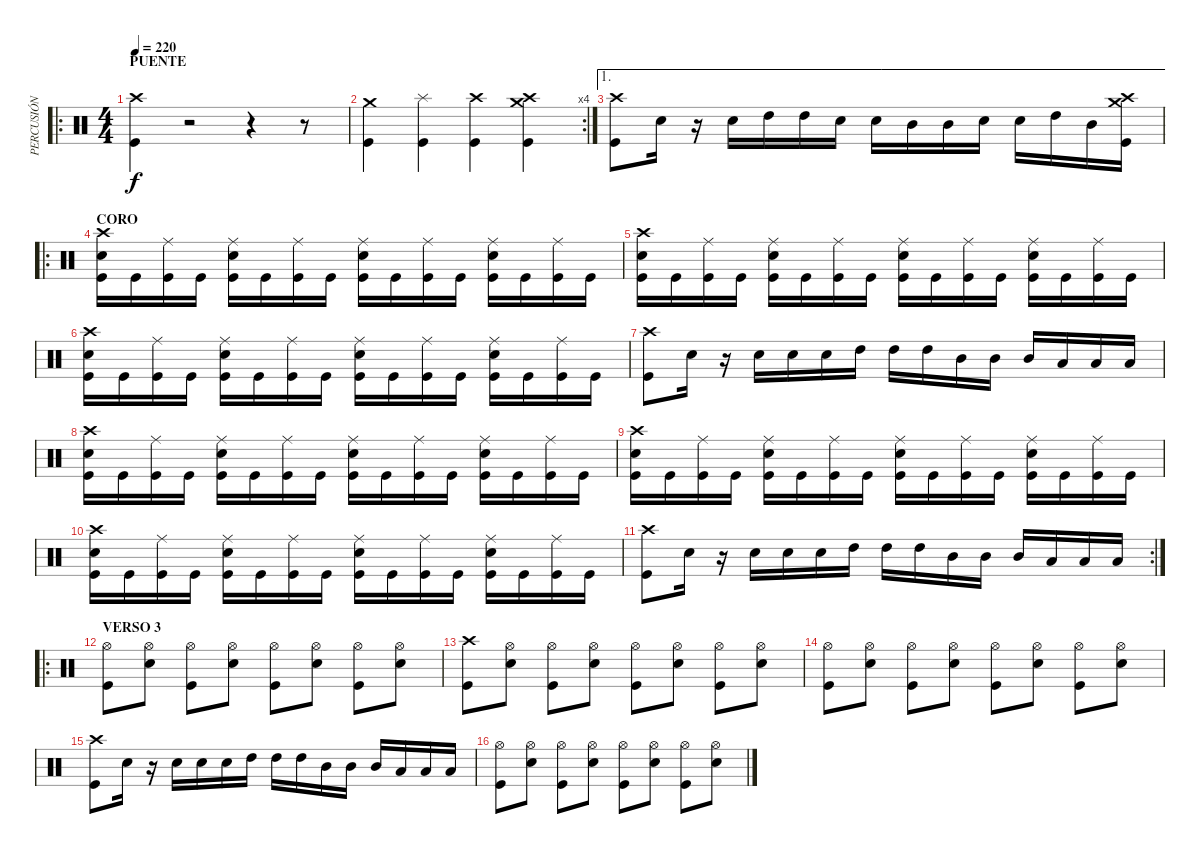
\track ("PERCUSIÓN" "PERCUSIÓN") {instrument percussion}
\staff {score}
\articulation defaults
\ro
\ts (4 4)
\section ("" "PUENTE")
\tempo 220
\clef neutral
\ks c
("Crash high (hit)" "Kick (hit)").4{dy f} r.2 r.4 r.8 |
\rc 4
("Crash medium (hit)" "Kick (hit)").4 ("Splash (hit)" "Kick (hit)").4 ("Crash high (hit)" "Kick (hit)").4 ("Crash medium (hit)" "Crash high (hit)" "Kick (hit)").4 |
\ae 1
("Crash high (hit)" "Kick (hit)").8 "Snare (hit) 2".16 r.16 "Snare (hit) 2".16 "High Tom (hit)".16 "High Tom (hit)".16 "Snare (hit) 2".16 "Snare (hit) 2".16 "Mid Tom (hit)".16 "Mid Tom (hit)".16 "Snare (hit) 2".16 "Snare (hit) 2".16 "High Tom (hit)".16 "Mid Tom (hit)".16 ("Crash medium (hit)" "Crash high (hit)" "Kick (hit)").16 |
\ro
\section ("" "CORO")
("Crash high (hit)" "Snare (hit) 2" "Kick (hit)").16 "Kick (hit)".16 ("Ride (middle)" "Kick (hit)").16 "Kick (hit)".16 ("Ride (middle)" "Snare (hit) 2" "Kick (hit)").16 "Kick (hit)".16 ("Ride (middle)" "Kick (hit)").16 "Kick (hit)".16 ("Ride (middle)" "Snare (hit) 2" "Kick (hit)").16 "Kick (hit)".16 ("Ride (middle)" "Kick (hit)").16 "Kick (hit)".16 ("Ride (middle)" "Snare (hit) 2" "Kick (hit)").16 "Kick (hit)".16 ("Ride (middle)" "Kick (hit)").16 "Kick (hit)".16 |
("Crash high (hit)" "Snare (hit) 2" "Kick (hit)").16 "Kick (hit)".16 ("Ride (middle)" "Kick (hit)").16 "Kick (hit)".16 ("Ride (middle)" "Snare (hit) 2" "Kick (hit)").16 "Kick (hit)".16 ("Ride (middle)" "Kick (hit)").16 "Kick (hit)".16 ("Ride (middle)" "Snare (hit) 2" "Kick (hit)").16 "Kick (hit)".16 ("Ride (middle)" "Kick (hit)").16 "Kick (hit)".16 ("Ride (middle)" "Snare (hit) 2" "Kick (hit)").16 "Kick (hit)".16 ("Ride (middle)" "Kick (hit)").16 "Kick (hit)".16 |
("Crash high (hit)" "Snare (hit) 2" "Kick (hit)").16 "Kick (hit)".16 ("Ride (middle)" "Kick (hit)").16 "Kick (hit)".16 ("Ride (middle)" "Snare (hit) 2" "Kick (hit)").16 "Kick (hit)".16 ("Ride (middle)" "Kick (hit)").16 "Kick (hit)".16 ("Ride (middle)" "Snare (hit) 2" "Kick (hit)").16 "Kick (hit)".16 ("Ride (middle)" "Kick (hit)").16 "Kick (hit)".16 ("Ride (middle)" "Snare (hit) 2" "Kick (hit)").16 "Kick (hit)".16 ("Ride (middle)" "Kick (hit)").16 "Kick (hit)".16 |
("Crash high (hit)" "Kick (hit)").8 "Snare (hit) 2".16 r.16 "Snare (hit) 2".16 "Snare (hit) 2".16 "Snare (hit) 2".16 "High Tom (hit)".16 "High Tom (hit)".16 "High Tom (hit)".16 "Mid Tom (hit)".16 "Mid Tom (hit)".16 "Mid Tom (hit)".16 "Low Tom (hit)".16 "Low Tom (hit)".16 "Low Tom (hit)".16 |
("Crash high (hit)" "Snare (hit) 2" "Kick (hit)").16 "Kick (hit)".16 ("Ride (middle)" "Kick (hit)").16 "Kick (hit)".16 ("Ride (middle)" "Snare (hit) 2" "Kick (hit)").16 "Kick (hit)".16 ("Ride (middle)" "Kick (hit)").16 "Kick (hit)".16 ("Ride (middle)" "Snare (hit) 2" "Kick (hit)").16 "Kick (hit)".16 ("Ride (middle)" "Kick (hit)").16 "Kick (hit)".16 ("Ride (middle)" "Snare (hit) 2" "Kick (hit)").16 "Kick (hit)".16 ("Ride (middle)" "Kick (hit)").16 "Kick (hit)".16 |
("Crash high (hit)" "Snare (hit) 2" "Kick (hit)").16 "Kick (hit)".16 ("Ride (middle)" "Kick (hit)").16 "Kick (hit)".16 ("Ride (middle)" "Snare (hit) 2" "Kick (hit)").16 "Kick (hit)".16 ("Ride (middle)" "Kick (hit)").16 "Kick (hit)".16 ("Ride (middle)" "Snare (hit) 2" "Kick (hit)").16 "Kick (hit)".16 ("Ride (middle)" "Kick (hit)").16 "Kick (hit)".16 ("Ride (middle)" "Snare (hit) 2" "Kick (hit)").16 "Kick (hit)".16 ("Ride (middle)" "Kick (hit)").16 "Kick (hit)".16 |
("Crash high (hit)" "Snare (hit) 2" "Kick (hit)").16 "Kick (hit)".16 ("Ride (middle)" "Kick (hit)").16 "Kick (hit)".16 ("Ride (middle)" "Snare (hit) 2" "Kick (hit)").16 "Kick (hit)".16 ("Ride (middle)" "Kick (hit)").16 "Kick (hit)".16 ("Ride (middle)" "Snare (hit) 2" "Kick (hit)").16 "Kick (hit)".16 ("Ride (middle)" "Kick (hit)").16 "Kick (hit)".16 ("Ride (middle)" "Snare (hit) 2" "Kick (hit)").16 "Kick (hit)".16 ("Ride (middle)" "Kick (hit)").16 "Kick (hit)".16 |
\rc 2
("Crash high (hit)" "Kick (hit)").8 "Snare (hit) 2".16 r.16 "Snare (hit) 2".16 "Snare (hit) 2".16 "Snare (hit) 2".16 "High Tom (hit)".16 "High Tom (hit)".16 "High Tom (hit)".16 "Mid Tom (hit)".16 "Mid Tom (hit)".16 "Mid Tom (hit)".16 "Low Tom (hit)".16 "Low Tom (hit)".16 "Low Tom (hit)".16 |
\ro
\section ("" "VERSO 3")
("Hi-Hat (open)" "Kick (hit)").8 ("Hi-Hat (open)" "Snare (hit) 2").8 ("Hi-Hat (open)" "Kick (hit)").8 ("Hi-Hat (open)" "Snare (hit) 2").8 ("Hi-Hat (open)" "Kick (hit)").8 ("Hi-Hat (open)" "Snare (hit) 2").8 ("Hi-Hat (open)" "Kick (hit)").8 ("Hi-Hat (open)" "Snare (hit) 2").8 |
("Crash high (hit)" "Kick (hit)").8 ("Hi-Hat (open)" "Snare (hit) 2").8 ("Hi-Hat (open)" "Kick (hit)").8 ("Hi-Hat (open)" "Snare (hit) 2").8 ("Hi-Hat (open)" "Kick (hit)").8 ("Hi-Hat (open)" "Snare (hit) 2").8 ("Hi-Hat (open)" "Kick (hit)").8 ("Hi-Hat (open)" "Snare (hit) 2").8 |
("Hi-Hat (open)" "Kick (hit)").8 ("Hi-Hat (open)" "Snare (hit) 2").8 ("Hi-Hat (open)" "Kick (hit)").8 ("Hi-Hat (open)" "Snare (hit) 2").8 ("Hi-Hat (open)" "Kick (hit)").8 ("Hi-Hat (open)" "Snare (hit) 2").8 ("Hi-Hat (open)" "Kick (hit)").8 ("Hi-Hat (open)" "Snare (hit) 2").8 |
("Crash high (hit)" "Kick (hit)").8 "Snare (hit) 2".16 r.16 "Snare (hit) 2".16 "Snare (hit) 2".16 "Snare (hit) 2".16 "High Tom (hit)".16 "High Tom (hit)".16 "High Tom (hit)".16 "Mid Tom (hit)".16 "Mid Tom (hit)".16 "Mid Tom (hit)".16 "Low Tom (hit)".16 "Low Tom (hit)".16 "Low Tom (hit)".16 |
("Hi-Hat (open)" "Kick (hit)").8 ("Hi-Hat (open)" "Snare (hit) 2").8 ("Hi-Hat (open)" "Kick (hit)").8 ("Hi-Hat (open)" "Snare (hit) 2").8 ("Hi-Hat (open)" "Kick (hit)").8 ("Hi-Hat (open)" "Snare (hit) 2").8 ("Hi-Hat (open)" "Kick (hit)").8 ("Hi-Hat (open)" "Snare (hit) 2").8
